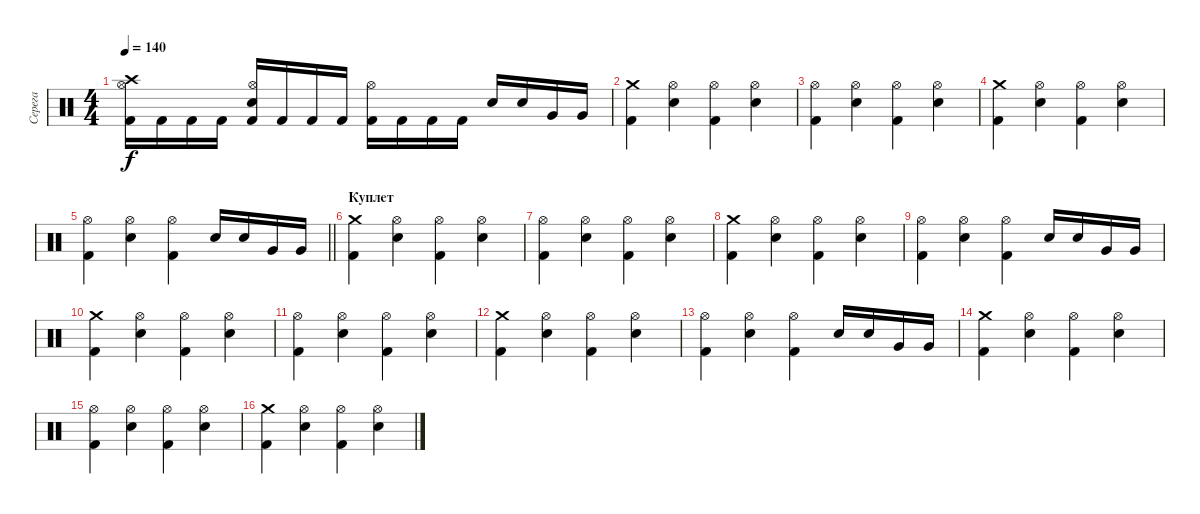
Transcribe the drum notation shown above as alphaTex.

\track ("Серега" "Серега") {instrument percussion}
\staff {score}
\articulation defaults
\ts (4 4)
\tempo 140
\clef neutral
\ks c
("Kick (hit) 2" "Crash high (hit)" "Hi-Hat (open)").16{dy f} "Kick (hit) 2".16 "Kick (hit) 2".16 "Kick (hit) 2".16 ("Kick (hit) 2" "Electric Snare (hit)" "Hi-Hat (open)").16 "Kick (hit) 2".16 "Kick (hit) 2".16 "Kick (hit) 2".16 ("Kick (hit) 2" "Hi-Hat (open)").16 "Kick (hit) 2".16 "Kick (hit) 2".16 "Kick (hit) 2".16 "Electric Snare (hit)".16 "Electric Snare (hit)".16 "Very Low Tom (hit)".16 "Very Low Tom (hit)".16 |
("Crash medium (hit)" "Kick (hit) 2").4 ("Hi-Hat (open)" "Electric Snare (hit)").4 ("Hi-Hat (open)" "Kick (hit) 2").4 ("Hi-Hat (open)" "Electric Snare (hit)").4 |
("Hi-Hat (open)" "Kick (hit) 2").4 ("Hi-Hat (open)" "Electric Snare (hit)").4 ("Hi-Hat (open)" "Kick (hit) 2").4 ("Hi-Hat (open)" "Electric Snare (hit)").4 |
("Crash medium (hit)" "Kick (hit) 2").4 ("Hi-Hat (open)" "Electric Snare (hit)").4 ("Hi-Hat (open)" "Kick (hit) 2").4 ("Hi-Hat (open)" "Electric Snare (hit)").4 |
\barLineRight lightlight
("Hi-Hat (open)" "Kick (hit) 2").4 ("Hi-Hat (open)" "Electric Snare (hit)").4 ("Hi-Hat (open)" "Kick (hit) 2").4 "Electric Snare (hit)".16 "Electric Snare (hit)".16 "Very Low Tom (hit)".16 "Very Low Tom (hit)".16 |
\section ("" "Куплет")
("Crash medium (hit)" "Kick (hit) 2").4 ("Hi-Hat (open)" "Electric Snare (hit)").4 ("Hi-Hat (open)" "Kick (hit) 2").4 ("Hi-Hat (open)" "Electric Snare (hit)").4 |
("Hi-Hat (open)" "Kick (hit) 2").4 ("Hi-Hat (open)" "Electric Snare (hit)").4 ("Hi-Hat (open)" "Kick (hit) 2").4 ("Hi-Hat (open)" "Electric Snare (hit)").4 |
("Crash medium (hit)" "Kick (hit) 2").4 ("Hi-Hat (open)" "Electric Snare (hit)").4 ("Hi-Hat (open)" "Kick (hit) 2").4 ("Hi-Hat (open)" "Electric Snare (hit)").4 |
("Hi-Hat (open)" "Kick (hit) 2").4 ("Hi-Hat (open)" "Electric Snare (hit)").4 ("Hi-Hat (open)" "Kick (hit) 2").4 "Electric Snare (hit)".16 "Electric Snare (hit)".16 "Very Low Tom (hit)".16 "Very Low Tom (hit)".16 |
("Crash medium (hit)" "Kick (hit) 2").4 ("Hi-Hat (open)" "Electric Snare (hit)").4 ("Hi-Hat (open)" "Kick (hit) 2").4 ("Hi-Hat (open)" "Electric Snare (hit)").4 |
("Hi-Hat (open)" "Kick (hit) 2").4 ("Hi-Hat (open)" "Electric Snare (hit)").4 ("Hi-Hat (open)" "Kick (hit) 2").4 ("Hi-Hat (open)" "Electric Snare (hit)").4 |
("Crash medium (hit)" "Kick (hit) 2").4 ("Hi-Hat (open)" "Electric Snare (hit)").4 ("Hi-Hat (open)" "Kick (hit) 2").4 ("Hi-Hat (open)" "Electric Snare (hit)").4 |
("Hi-Hat (open)" "Kick (hit) 2").4 ("Hi-Hat (open)" "Electric Snare (hit)").4 ("Hi-Hat (open)" "Kick (hit) 2").4 "Electric Snare (hit)".16 "Electric Snare (hit)".16 "Very Low Tom (hit)".16 "Very Low Tom (hit)".16 |
("Crash medium (hit)" "Kick (hit) 2").4 ("Hi-Hat (open)" "Electric Snare (hit)").4 ("Hi-Hat (open)" "Kick (hit) 2").4 ("Hi-Hat (open)" "Electric Snare (hit)").4 |
("Hi-Hat (open)" "Kick (hit) 2").4 ("Hi-Hat (open)" "Electric Snare (hit)").4 ("Hi-Hat (open)" "Kick (hit) 2").4 ("Hi-Hat (open)" "Electric Snare (hit)").4 |
("Crash medium (hit)" "Kick (hit) 2").4 ("Hi-Hat (open)" "Electric Snare (hit)").4 ("Hi-Hat (open)" "Kick (hit) 2").4 ("Hi-Hat (open)" "Electric Snare (hit)").4
